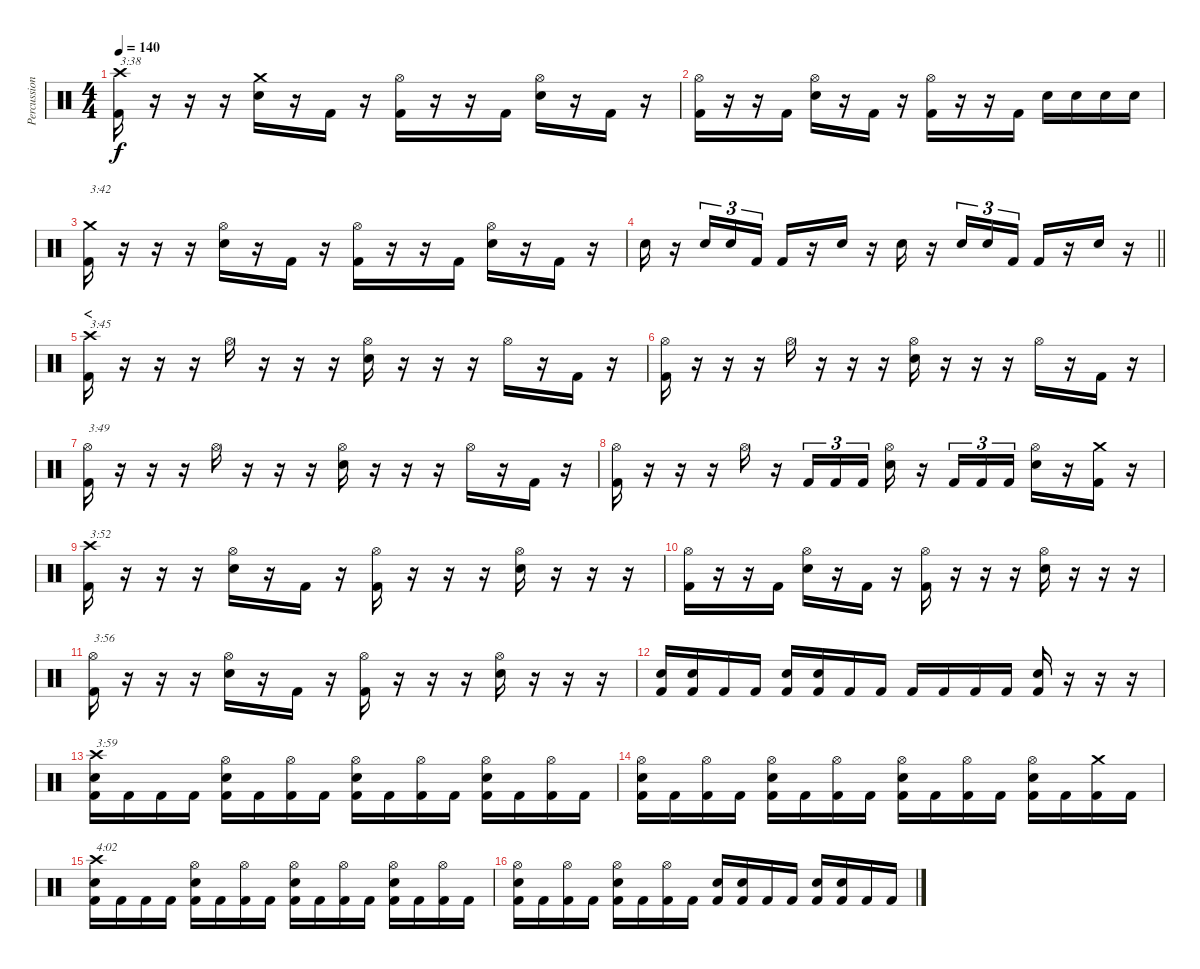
\track ("Percussion" "Percussion") {instrument percussion}
\staff {score}
\articulation defaults
\ts (4 4)
\tempo 140
\clef neutral
\ks c
("Crash high (hit)" "Kick (hit) 2").16{txt "3:38" dy f} r.16 r.16 r.16 ("Crash medium (hit)" "Electric Snare (hit)").16 r.16 "Kick (hit) 2".16 r.16 ("Hi-Hat (open)" "Kick (hit) 2").16 r.16 r.16 "Kick (hit) 2".16 ("Hi-Hat (open)" "Electric Snare (hit)").16 r.16 "Kick (hit) 2".16 r.16 |
("Hi-Hat (open)" "Kick (hit) 2").16 r.16 r.16 "Kick (hit) 2".16 ("Hi-Hat (open)" "Electric Snare (hit)").16 r.16 "Kick (hit) 2".16 r.16 ("Hi-Hat (open)" "Kick (hit) 2").16 r.16 r.16 "Kick (hit) 2".16 "Electric Snare (hit)".16 "Electric Snare (hit)".16 "Electric Snare (hit)".16 "Electric Snare (hit)".16 |
("Crash medium (hit)" "Kick (hit) 2").16{txt "3:42"} r.16 r.16 r.16 ("Hi-Hat (open)" "Electric Snare (hit)").16 r.16 "Kick (hit) 2".16 r.16 ("Hi-Hat (open)" "Kick (hit) 2").16 r.16 r.16 "Kick (hit) 2".16 ("Hi-Hat (open)" "Electric Snare (hit)").16 r.16 "Kick (hit) 2".16 r.16 |
\barLineRight lightlight "Electric Snare (hit)".16
r.16 "Electric Snare (hit)".16{tu (3 2)} "Electric Snare (hit)".16{tu (3 2)} "Kick (hit) 2".16{tu (3 2)} "Kick (hit) 2".16 r.16 "Electric Snare (hit)".16 r.16 "Electric Snare (hit)".16 r.16 "Electric Snare (hit)".16{tu (3 2)} "Electric Snare (hit)".16{tu (3 2)} "Kick (hit) 2".16{tu (3 2)} "Kick (hit) 2".16 r.16 "Electric Snare (hit)".16 r.16 |
\section ("" "<")
("Crash high (hit)" "Kick (hit) 2").16{txt "3:45"} r.16 r.16 r.16 "Hi-Hat (open)".16 r.16 r.16 r.16 ("Hi-Hat (open)" "Electric Snare (hit)").16 r.16 r.16 r.16 "Hi-Hat (open)".16 r.16 "Kick (hit) 2".16 r.16 |
("Hi-Hat (open)" "Kick (hit) 2").16 r.16 r.16 r.16 "Hi-Hat (open)".16 r.16 r.16 r.16 ("Hi-Hat (open)" "Electric Snare (hit)").16 r.16 r.16 r.16 "Hi-Hat (open)".16 r.16 "Kick (hit) 2".16 r.16 |
("Hi-Hat (open)" "Kick (hit) 2").16{txt "3:49"} r.16 r.16 r.16 "Hi-Hat (open)".16 r.16 r.16 r.16 ("Hi-Hat (open)" "Electric Snare (hit)").16 r.16 r.16 r.16 "Hi-Hat (open)".16 r.16 "Kick (hit) 2".16 r.16 |
("Hi-Hat (open)" "Kick (hit) 2").16 r.16 r.16 r.16 "Hi-Hat (open)".16 r.16 "Kick (hit) 2".16{tu (3 2)} "Kick (hit) 2".16{tu (3 2)} "Kick (hit) 2".16{tu (3 2)} ("Hi-Hat (open)" "Electric Snare (hit)").16 r.16 "Kick (hit) 2".16{tu (3 2)} "Kick (hit) 2".16{tu (3 2)} "Kick (hit) 2".16{tu (3 2)} ("Hi-Hat (open)" "Electric Snare (hit)").16 r.16 ("Crash medium (hit)" "Kick (hit) 2").16 r.16 |
("Crash high (hit)" "Kick (hit) 2").16{txt "3:52"} r.16 r.16 r.16 ("Hi-Hat (open)" "Electric Snare (hit)").16 r.16 "Kick (hit) 2".16 r.16 ("Hi-Hat (open)" "Kick (hit) 2").16 r.16 r.16 r.16 ("Hi-Hat (open)" "Electric Snare (hit)").16 r.16 r.16 r.16 |
("Hi-Hat (open)" "Kick (hit) 2").16 r.16 r.16 "Kick (hit) 2".16 ("Hi-Hat (open)" "Electric Snare (hit)").16 r.16 "Kick (hit) 2".16 r.16 ("Hi-Hat (open)" "Kick (hit) 2").16 r.16 r.16 r.16 ("Hi-Hat (open)" "Electric Snare (hit)").16 r.16 r.16 r.16 |
("Hi-Hat (open)" "Kick (hit) 2").16{txt "3:56"} r.16 r.16 r.16 ("Hi-Hat (open)" "Electric Snare (hit)").16 r.16 "Kick (hit) 2".16 r.16 ("Hi-Hat (open)" "Kick (hit) 2").16 r.16 r.16 r.16 ("Hi-Hat (open)" "Electric Snare (hit)").16 r.16 r.16 r.16 |
("Electric Snare (hit)" "Kick (hit) 2").16 ("Electric Snare (hit)" "Kick (hit) 2").16 "Kick (hit) 2".16 "Kick (hit) 2".16 ("Electric Snare (hit)" "Kick (hit) 2").16 ("Electric Snare (hit)" "Kick (hit) 2").16 "Kick (hit) 2".16 "Kick (hit) 2".16 "Kick (hit) 2".16 "Kick (hit) 2".16 "Kick (hit) 2".16 "Kick (hit) 2".16 ("Electric Snare (hit)" "Kick (hit) 2").16 r.16 r.16 r.16 |
("Crash high (hit)" "Electric Snare (hit)" "Kick (hit) 2").16{txt "3:59"} "Kick (hit) 2".16 "Kick (hit) 2".16 "Kick (hit) 2".16 ("Hi-Hat (open)" "Electric Snare (hit)" "Kick (hit) 2").16 "Kick (hit) 2".16 ("Hi-Hat (open)" "Kick (hit) 2").16 "Kick (hit) 2".16 ("Hi-Hat (open)" "Electric Snare (hit)" "Kick (hit) 2").16 "Kick (hit) 2".16 ("Hi-Hat (open)" "Kick (hit) 2").16 "Kick (hit) 2".16 ("Hi-Hat (open)" "Electric Snare (hit)" "Kick (hit) 2").16 "Kick (hit) 2".16 ("Hi-Hat (open)" "Kick (hit) 2").16 "Kick (hit) 2".16 |
("Hi-Hat (open)" "Electric Snare (hit)" "Kick (hit) 2").16 "Kick (hit) 2".16 ("Hi-Hat (open)" "Kick (hit) 2").16 "Kick (hit) 2".16 ("Hi-Hat (open)" "Electric Snare (hit)" "Kick (hit) 2").16 "Kick (hit) 2".16 ("Hi-Hat (open)" "Kick (hit) 2").16 "Kick (hit) 2".16 ("Hi-Hat (open)" "Electric Snare (hit)" "Kick (hit) 2").16 "Kick (hit) 2".16 ("Hi-Hat (open)" "Kick (hit) 2").16 "Kick (hit) 2".16 ("Hi-Hat (open)" "Electric Snare (hit)" "Kick (hit) 2").16 "Kick (hit) 2".16 ("Crash medium (hit)" "Kick (hit) 2").16 "Kick (hit) 2".16 |
("Crash high (hit)" "Electric Snare (hit)" "Kick (hit) 2").16{txt "4:02"} "Kick (hit) 2".16 "Kick (hit) 2".16 "Kick (hit) 2".16 ("Hi-Hat (open)" "Electric Snare (hit)" "Kick (hit) 2").16 "Kick (hit) 2".16 ("Hi-Hat (open)" "Kick (hit) 2").16 "Kick (hit) 2".16 ("Hi-Hat (open)" "Electric Snare (hit)" "Kick (hit) 2").16 "Kick (hit) 2".16 ("Hi-Hat (open)" "Kick (hit) 2").16 "Kick (hit) 2".16 ("Hi-Hat (open)" "Electric Snare (hit)" "Kick (hit) 2").16 "Kick (hit) 2".16 ("Hi-Hat (open)" "Kick (hit) 2").16 "Kick (hit) 2".16 |
("Hi-Hat (open)" "Electric Snare (hit)" "Kick (hit) 2").16 "Kick (hit) 2".16 ("Hi-Hat (open)" "Kick (hit) 2").16 "Kick (hit) 2".16 ("Hi-Hat (open)" "Electric Snare (hit)" "Kick (hit) 2").16 "Kick (hit) 2".16 ("Hi-Hat (open)" "Kick (hit) 2").16 "Kick (hit) 2".16 ("Electric Snare (hit)" "Kick (hit) 2").16 ("Electric Snare (hit)" "Kick (hit) 2").16 "Kick (hit) 2".16 "Kick (hit) 2".16 ("Electric Snare (hit)" "Kick (hit) 2").16 ("Electric Snare (hit)" "Kick (hit) 2").16 "Kick (hit) 2".16 "Kick (hit) 2".16
